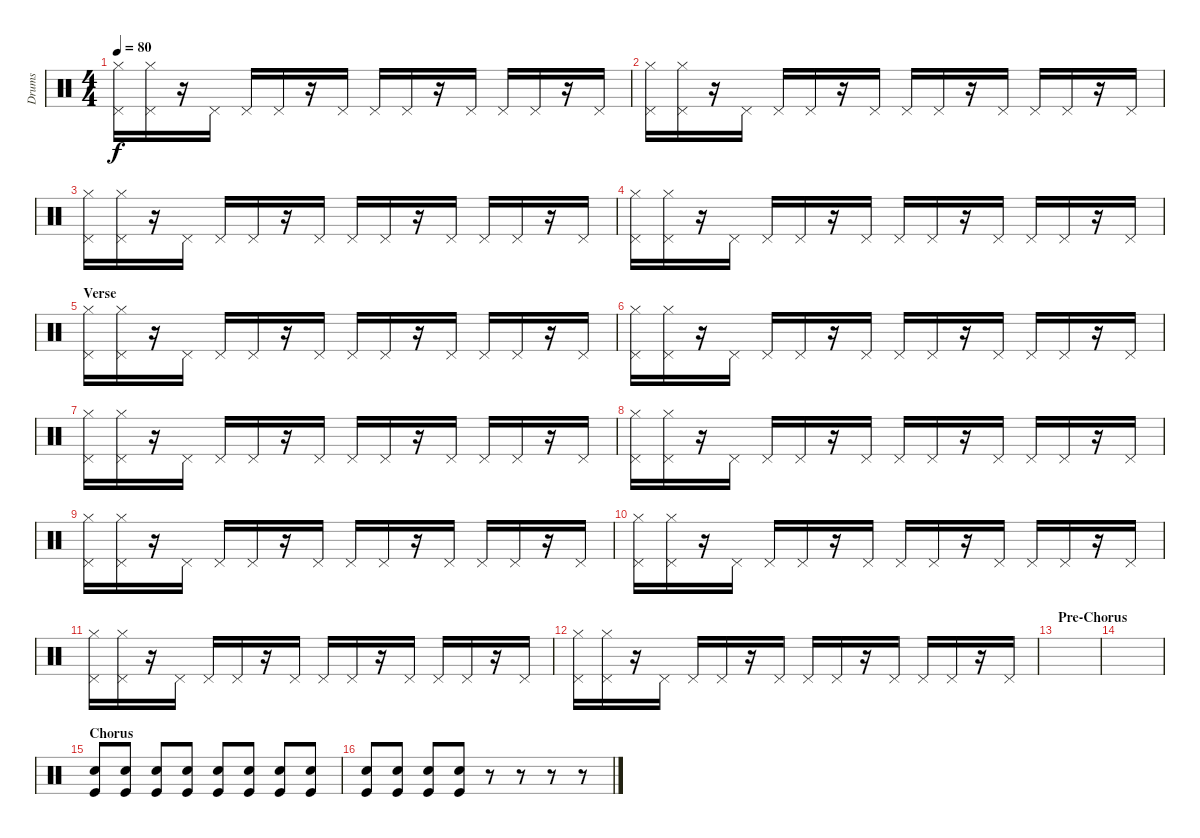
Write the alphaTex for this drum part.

\track ("Drums" "Drums") {instrument percussion}
\staff {score}
\articulation defaults
\ts (4 4)
\tempo 80
\clef neutral
\ks c
("Hi-Hat (closed)" "Pedal Hi-Hat (hit)").16{dy f} ("Hi-Hat (closed)" "Pedal Hi-Hat (hit)").16 r.16 "Pedal Hi-Hat (hit)".16 "Pedal Hi-Hat (hit)".16 "Pedal Hi-Hat (hit)".16 r.16 "Pedal Hi-Hat (hit)".16 "Pedal Hi-Hat (hit)".16 "Pedal Hi-Hat (hit)".16 r.16 "Pedal Hi-Hat (hit)".16 "Pedal Hi-Hat (hit)".16 "Pedal Hi-Hat (hit)".16 r.16 "Pedal Hi-Hat (hit)".16 |
("Hi-Hat (closed)" "Pedal Hi-Hat (hit)").16 ("Hi-Hat (closed)" "Pedal Hi-Hat (hit)").16 r.16 "Pedal Hi-Hat (hit)".16 "Pedal Hi-Hat (hit)".16 "Pedal Hi-Hat (hit)".16 r.16 "Pedal Hi-Hat (hit)".16 "Pedal Hi-Hat (hit)".16 "Pedal Hi-Hat (hit)".16 r.16 "Pedal Hi-Hat (hit)".16 "Pedal Hi-Hat (hit)".16 "Pedal Hi-Hat (hit)".16 r.16 "Pedal Hi-Hat (hit)".16 |
("Hi-Hat (closed)" "Pedal Hi-Hat (hit)").16 ("Hi-Hat (closed)" "Pedal Hi-Hat (hit)").16 r.16 "Pedal Hi-Hat (hit)".16 "Pedal Hi-Hat (hit)".16 "Pedal Hi-Hat (hit)".16 r.16 "Pedal Hi-Hat (hit)".16 "Pedal Hi-Hat (hit)".16 "Pedal Hi-Hat (hit)".16 r.16 "Pedal Hi-Hat (hit)".16 "Pedal Hi-Hat (hit)".16 "Pedal Hi-Hat (hit)".16 r.16 "Pedal Hi-Hat (hit)".16 |
("Hi-Hat (closed)" "Pedal Hi-Hat (hit)").16 ("Hi-Hat (closed)" "Pedal Hi-Hat (hit)").16 r.16 "Pedal Hi-Hat (hit)".16 "Pedal Hi-Hat (hit)".16 "Pedal Hi-Hat (hit)".16 r.16 "Pedal Hi-Hat (hit)".16 "Pedal Hi-Hat (hit)".16 "Pedal Hi-Hat (hit)".16 r.16 "Pedal Hi-Hat (hit)".16 "Pedal Hi-Hat (hit)".16 "Pedal Hi-Hat (hit)".16 r.16 "Pedal Hi-Hat (hit)".16 |
\section ("" "Verse")
("Hi-Hat (closed)" "Pedal Hi-Hat (hit)").16 ("Hi-Hat (closed)" "Pedal Hi-Hat (hit)").16 r.16 "Pedal Hi-Hat (hit)".16 "Pedal Hi-Hat (hit)".16 "Pedal Hi-Hat (hit)".16 r.16 "Pedal Hi-Hat (hit)".16 "Pedal Hi-Hat (hit)".16 "Pedal Hi-Hat (hit)".16 r.16 "Pedal Hi-Hat (hit)".16 "Pedal Hi-Hat (hit)".16 "Pedal Hi-Hat (hit)".16 r.16 "Pedal Hi-Hat (hit)".16 |
("Hi-Hat (closed)" "Pedal Hi-Hat (hit)").16 ("Hi-Hat (closed)" "Pedal Hi-Hat (hit)").16 r.16 "Pedal Hi-Hat (hit)".16 "Pedal Hi-Hat (hit)".16 "Pedal Hi-Hat (hit)".16 r.16 "Pedal Hi-Hat (hit)".16 "Pedal Hi-Hat (hit)".16 "Pedal Hi-Hat (hit)".16 r.16 "Pedal Hi-Hat (hit)".16 "Pedal Hi-Hat (hit)".16 "Pedal Hi-Hat (hit)".16 r.16 "Pedal Hi-Hat (hit)".16 |
("Hi-Hat (closed)" "Pedal Hi-Hat (hit)").16 ("Hi-Hat (closed)" "Pedal Hi-Hat (hit)").16 r.16 "Pedal Hi-Hat (hit)".16 "Pedal Hi-Hat (hit)".16 "Pedal Hi-Hat (hit)".16 r.16 "Pedal Hi-Hat (hit)".16 "Pedal Hi-Hat (hit)".16 "Pedal Hi-Hat (hit)".16 r.16 "Pedal Hi-Hat (hit)".16 "Pedal Hi-Hat (hit)".16 "Pedal Hi-Hat (hit)".16 r.16 "Pedal Hi-Hat (hit)".16 |
("Hi-Hat (closed)" "Pedal Hi-Hat (hit)").16 ("Hi-Hat (closed)" "Pedal Hi-Hat (hit)").16 r.16 "Pedal Hi-Hat (hit)".16 "Pedal Hi-Hat (hit)".16 "Pedal Hi-Hat (hit)".16 r.16 "Pedal Hi-Hat (hit)".16 "Pedal Hi-Hat (hit)".16 "Pedal Hi-Hat (hit)".16 r.16 "Pedal Hi-Hat (hit)".16 "Pedal Hi-Hat (hit)".16 "Pedal Hi-Hat (hit)".16 r.16 "Pedal Hi-Hat (hit)".16 |
("Hi-Hat (closed)" "Pedal Hi-Hat (hit)").16 ("Hi-Hat (closed)" "Pedal Hi-Hat (hit)").16 r.16 "Pedal Hi-Hat (hit)".16 "Pedal Hi-Hat (hit)".16 "Pedal Hi-Hat (hit)".16 r.16 "Pedal Hi-Hat (hit)".16 "Pedal Hi-Hat (hit)".16 "Pedal Hi-Hat (hit)".16 r.16 "Pedal Hi-Hat (hit)".16 "Pedal Hi-Hat (hit)".16 "Pedal Hi-Hat (hit)".16 r.16 "Pedal Hi-Hat (hit)".16 |
("Hi-Hat (closed)" "Pedal Hi-Hat (hit)").16 ("Hi-Hat (closed)" "Pedal Hi-Hat (hit)").16 r.16 "Pedal Hi-Hat (hit)".16 "Pedal Hi-Hat (hit)".16 "Pedal Hi-Hat (hit)".16 r.16 "Pedal Hi-Hat (hit)".16 "Pedal Hi-Hat (hit)".16 "Pedal Hi-Hat (hit)".16 r.16 "Pedal Hi-Hat (hit)".16 "Pedal Hi-Hat (hit)".16 "Pedal Hi-Hat (hit)".16 r.16 "Pedal Hi-Hat (hit)".16 |
("Hi-Hat (closed)" "Pedal Hi-Hat (hit)").16 ("Hi-Hat (closed)" "Pedal Hi-Hat (hit)").16 r.16 "Pedal Hi-Hat (hit)".16 "Pedal Hi-Hat (hit)".16 "Pedal Hi-Hat (hit)".16 r.16 "Pedal Hi-Hat (hit)".16 "Pedal Hi-Hat (hit)".16 "Pedal Hi-Hat (hit)".16 r.16 "Pedal Hi-Hat (hit)".16 "Pedal Hi-Hat (hit)".16 "Pedal Hi-Hat (hit)".16 r.16 "Pedal Hi-Hat (hit)".16 |
("Hi-Hat (closed)" "Pedal Hi-Hat (hit)").16 ("Hi-Hat (closed)" "Pedal Hi-Hat (hit)").16 r.16 "Pedal Hi-Hat (hit)".16 "Pedal Hi-Hat (hit)".16 "Pedal Hi-Hat (hit)".16 r.16 "Pedal Hi-Hat (hit)".16 "Pedal Hi-Hat (hit)".16 "Pedal Hi-Hat (hit)".16 r.16 "Pedal Hi-Hat (hit)".16 "Pedal Hi-Hat (hit)".16 "Pedal Hi-Hat (hit)".16 r.16 "Pedal Hi-Hat (hit)".16 |
\section ("" "Pre-Chorus")
|
|
\section ("" "Chorus")
("Kick (hit)" "Snare (hit) 2").8{volume 7} ("Snare (hit) 2" "Kick (hit)").8 ("Snare (hit) 2" "Kick (hit)").8 ("Snare (hit) 2" "Kick (hit)").8 ("Snare (hit) 2" "Kick (hit)").8 ("Snare (hit) 2" "Kick (hit)").8 ("Snare (hit) 2" "Kick (hit)").8 ("Snare (hit) 2" "Kick (hit)").8 |
("Kick (hit)" "Snare (hit) 2").8 ("Kick (hit)" "Snare (hit) 2").8 ("Kick (hit)" "Snare (hit) 2").8 ("Kick (hit)" "Snare (hit) 2").8 r.8 r.8 r.8 r.8
